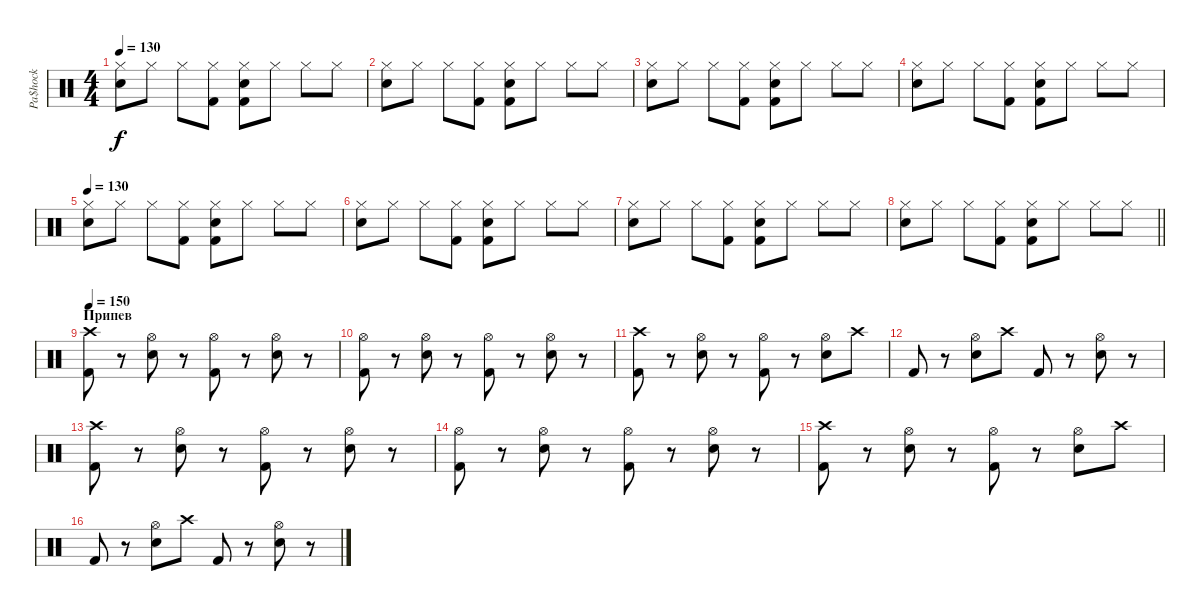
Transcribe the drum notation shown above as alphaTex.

\track ("Pa$hock" "Pa$hock") {instrument percussion}
\staff {score}
\articulation defaults
\ts (4 4)
\tempo 130
\clef neutral
\ks c
("Hi-Hat (closed)" "Snare (hit) 2").8{dy f} "Hi-Hat (closed)".8 "Hi-Hat (closed)".8 ("Hi-Hat (closed)" "Kick (hit) 2").8 ("Hi-Hat (closed)" "Kick (hit) 2" "Snare (hit) 2").8 "Hi-Hat (closed)".8 "Hi-Hat (closed)".8 "Hi-Hat (closed)".8 |
("Hi-Hat (closed)" "Snare (hit) 2").8 "Hi-Hat (closed)".8 "Hi-Hat (closed)".8 ("Hi-Hat (closed)" "Kick (hit) 2").8 ("Hi-Hat (closed)" "Kick (hit) 2" "Snare (hit) 2").8 "Hi-Hat (closed)".8 "Hi-Hat (closed)".8 "Hi-Hat (closed)".8 |
("Hi-Hat (closed)" "Snare (hit) 2").8 "Hi-Hat (closed)".8 "Hi-Hat (closed)".8 ("Hi-Hat (closed)" "Kick (hit) 2").8 ("Hi-Hat (closed)" "Kick (hit) 2" "Snare (hit) 2").8 "Hi-Hat (closed)".8 "Hi-Hat (closed)".8 "Hi-Hat (closed)".8 |
("Hi-Hat (closed)" "Snare (hit) 2").8 "Hi-Hat (closed)".8 "Hi-Hat (closed)".8 ("Hi-Hat (closed)" "Kick (hit) 2").8 ("Hi-Hat (closed)" "Kick (hit) 2" "Snare (hit) 2").8 "Hi-Hat (closed)".8 "Hi-Hat (closed)".8 "Hi-Hat (closed)".8 |
\tempo 130
("Hi-Hat (closed)" "Snare (hit) 2").8 "Hi-Hat (closed)".8 "Hi-Hat (closed)".8 ("Hi-Hat (closed)" "Kick (hit) 2").8 ("Hi-Hat (closed)" "Kick (hit) 2" "Snare (hit) 2").8 "Hi-Hat (closed)".8 "Hi-Hat (closed)".8 "Hi-Hat (closed)".8 |
("Hi-Hat (closed)" "Snare (hit) 2").8 "Hi-Hat (closed)".8 "Hi-Hat (closed)".8 ("Hi-Hat (closed)" "Kick (hit) 2").8 ("Hi-Hat (closed)" "Kick (hit) 2" "Snare (hit) 2").8 "Hi-Hat (closed)".8 "Hi-Hat (closed)".8 "Hi-Hat (closed)".8 |
("Hi-Hat (closed)" "Snare (hit) 2").8 "Hi-Hat (closed)".8 "Hi-Hat (closed)".8 ("Hi-Hat (closed)" "Kick (hit) 2").8 ("Hi-Hat (closed)" "Kick (hit) 2" "Snare (hit) 2").8 "Hi-Hat (closed)".8 "Hi-Hat (closed)".8 "Hi-Hat (closed)".8 |
\barLineRight lightlight
("Hi-Hat (closed)" "Snare (hit) 2").8 "Hi-Hat (closed)".8 "Hi-Hat (closed)".8 ("Hi-Hat (closed)" "Kick (hit) 2").8 ("Hi-Hat (closed)" "Kick (hit) 2" "Snare (hit) 2").8 "Hi-Hat (closed)".8 "Hi-Hat (closed)".8 "Hi-Hat (closed)".8 |
\section ("" "Припев")
\tempo 150
("Crash high (hit)" "Kick (hit) 2").8 r.8 ("Hi-Hat (open)" "Snare (hit) 2").8 r.8 ("Hi-Hat (open)" "Kick (hit) 2").8 r.8 ("Hi-Hat (open)" "Snare (hit) 2").8 r.8 |
("Hi-Hat (open)" "Kick (hit) 2").8 r.8 ("Hi-Hat (open)" "Snare (hit) 2").8 r.8 ("Hi-Hat (open)" "Kick (hit) 2").8 r.8 ("Hi-Hat (open)" "Snare (hit) 2").8 r.8 |
("Crash high (hit)" "Kick (hit) 2").8 r.8 ("Hi-Hat (open)" "Snare (hit) 2").8 r.8 ("Hi-Hat (open)" "Kick (hit) 2").8 r.8 ("Hi-Hat (open)" "Snare (hit) 2").8 "Crash high (hit)".8 |
"Kick (hit) 2".8 r.8 ("Hi-Hat (open)" "Snare (hit) 2").8 "Crash high (hit)".8 "Kick (hit) 2".8 r.8 ("Hi-Hat (open)" "Snare (hit) 2").8 r.8 |
("Crash high (hit)" "Kick (hit) 2").8 r.8 ("Hi-Hat (open)" "Snare (hit) 2").8 r.8 ("Hi-Hat (open)" "Kick (hit) 2").8 r.8 ("Hi-Hat (open)" "Snare (hit) 2").8 r.8 |
("Hi-Hat (open)" "Kick (hit) 2").8 r.8 ("Hi-Hat (open)" "Snare (hit) 2").8 r.8 ("Hi-Hat (open)" "Kick (hit) 2").8 r.8 ("Hi-Hat (open)" "Snare (hit) 2").8 r.8 |
("Crash high (hit)" "Kick (hit) 2").8 r.8 ("Hi-Hat (open)" "Snare (hit) 2").8 r.8 ("Hi-Hat (open)" "Kick (hit) 2").8 r.8 ("Hi-Hat (open)" "Snare (hit) 2").8 "Crash high (hit)".8 |
"Kick (hit) 2".8 r.8 ("Hi-Hat (open)" "Snare (hit) 2").8 "Crash high (hit)".8 "Kick (hit) 2".8 r.8 ("Hi-Hat (open)" "Snare (hit) 2").8 r.8
